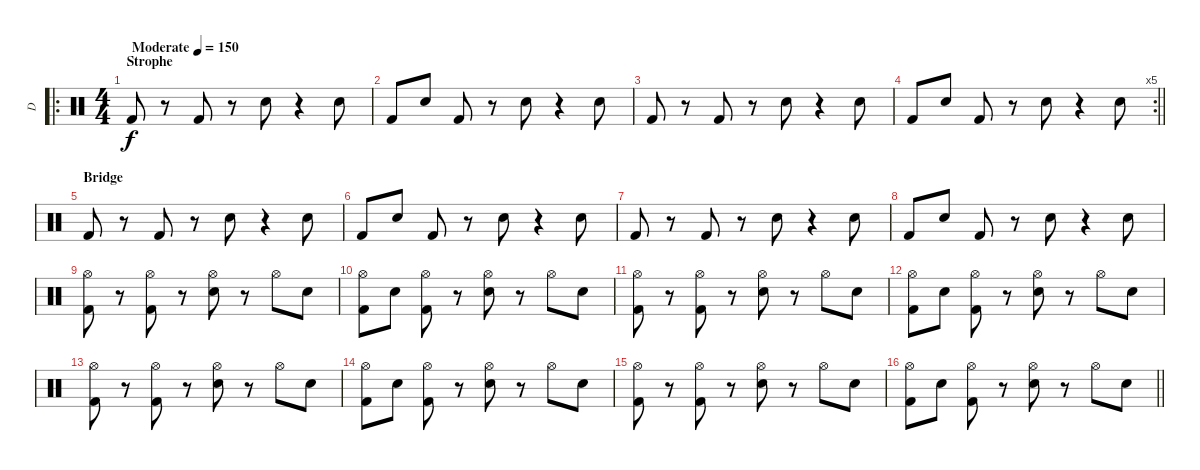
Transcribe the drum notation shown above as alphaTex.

\track ("D" "D") {instrument percussion}
\staff {score}
\articulation defaults
\ro
\ts (4 4)
\section ("" "Strophe")
\tempo (150 "Moderate")
\clef neutral
\ks c "Kick (hit) 2".8{dy f}
r.8 "Kick (hit) 2".8 r.8 "Snare (hit) 2".8 r.4 "Snare (hit) 2".8 |
"Kick (hit) 2".8 "Snare (hit) 2".8 "Kick (hit) 2".8 r.8 "Snare (hit) 2".8 r.4 "Snare (hit) 2".8 |
"Kick (hit) 2".8 r.8 "Kick (hit) 2".8 r.8 "Snare (hit) 2".8 r.4 "Snare (hit) 2".8 |
\rc 5
\barLineRight lightlight "Kick (hit) 2".8 "Snare (hit) 2".8 "Kick (hit) 2".8
r.8 "Snare (hit) 2".8 r.4 "Snare (hit) 2".8 |
\section ("" "Bridge")
"Kick (hit) 2".8 r.8 "Kick (hit) 2".8 r.8 "Snare (hit) 2".8 r.4 "Snare (hit) 2".8 |
"Kick (hit) 2".8 "Snare (hit) 2".8 "Kick (hit) 2".8 r.8 "Snare (hit) 2".8 r.4 "Snare (hit) 2".8 |
"Kick (hit) 2".8 r.8 "Kick (hit) 2".8 r.8 "Snare (hit) 2".8 r.4 "Snare (hit) 2".8 |
"Kick (hit) 2".8 "Snare (hit) 2".8 "Kick (hit) 2".8 r.8 "Snare (hit) 2".8 r.4 "Snare (hit) 2".8 |
("Hi-Hat (open)" "Kick (hit) 2").8 r.8 ("Hi-Hat (open)" "Kick (hit) 2").8 r.8 ("Hi-Hat (open)" "Snare (hit) 2").8 r.8 "Hi-Hat (open)".8 "Snare (hit) 2".8 |
("Hi-Hat (open)" "Kick (hit) 2").8 "Snare (hit) 2".8 ("Hi-Hat (open)" "Kick (hit) 2").8 r.8 ("Hi-Hat (open)" "Snare (hit) 2").8 r.8 "Hi-Hat (open)".8 "Snare (hit) 2".8 |
("Hi-Hat (open)" "Kick (hit) 2").8 r.8 ("Hi-Hat (open)" "Kick (hit) 2").8 r.8 ("Hi-Hat (open)" "Snare (hit) 2").8 r.8 "Hi-Hat (open)".8 "Snare (hit) 2".8 |
("Hi-Hat (open)" "Kick (hit) 2").8 "Snare (hit) 2".8 ("Hi-Hat (open)" "Kick (hit) 2").8 r.8 ("Hi-Hat (open)" "Snare (hit) 2").8 r.8 "Hi-Hat (open)".8 "Snare (hit) 2".8 |
("Hi-Hat (open)" "Kick (hit) 2").8 r.8 ("Hi-Hat (open)" "Kick (hit) 2").8 r.8 ("Hi-Hat (open)" "Snare (hit) 2").8 r.8 "Hi-Hat (open)".8 "Snare (hit) 2".8 |
("Hi-Hat (open)" "Kick (hit) 2").8 "Snare (hit) 2".8 ("Hi-Hat (open)" "Kick (hit) 2").8 r.8 ("Hi-Hat (open)" "Snare (hit) 2").8 r.8 "Hi-Hat (open)".8 "Snare (hit) 2".8 |
("Hi-Hat (open)" "Kick (hit) 2").8 r.8 ("Hi-Hat (open)" "Kick (hit) 2").8 r.8 ("Hi-Hat (open)" "Snare (hit) 2").8 r.8 "Hi-Hat (open)".8 "Snare (hit) 2".8 |
\barLineRight lightlight
("Hi-Hat (open)" "Kick (hit) 2").8 "Snare (hit) 2".8 ("Hi-Hat (open)" "Kick (hit) 2").8 r.8 ("Hi-Hat (open)" "Snare (hit) 2").8 r.8 "Hi-Hat (open)".8 "Snare (hit) 2".8
